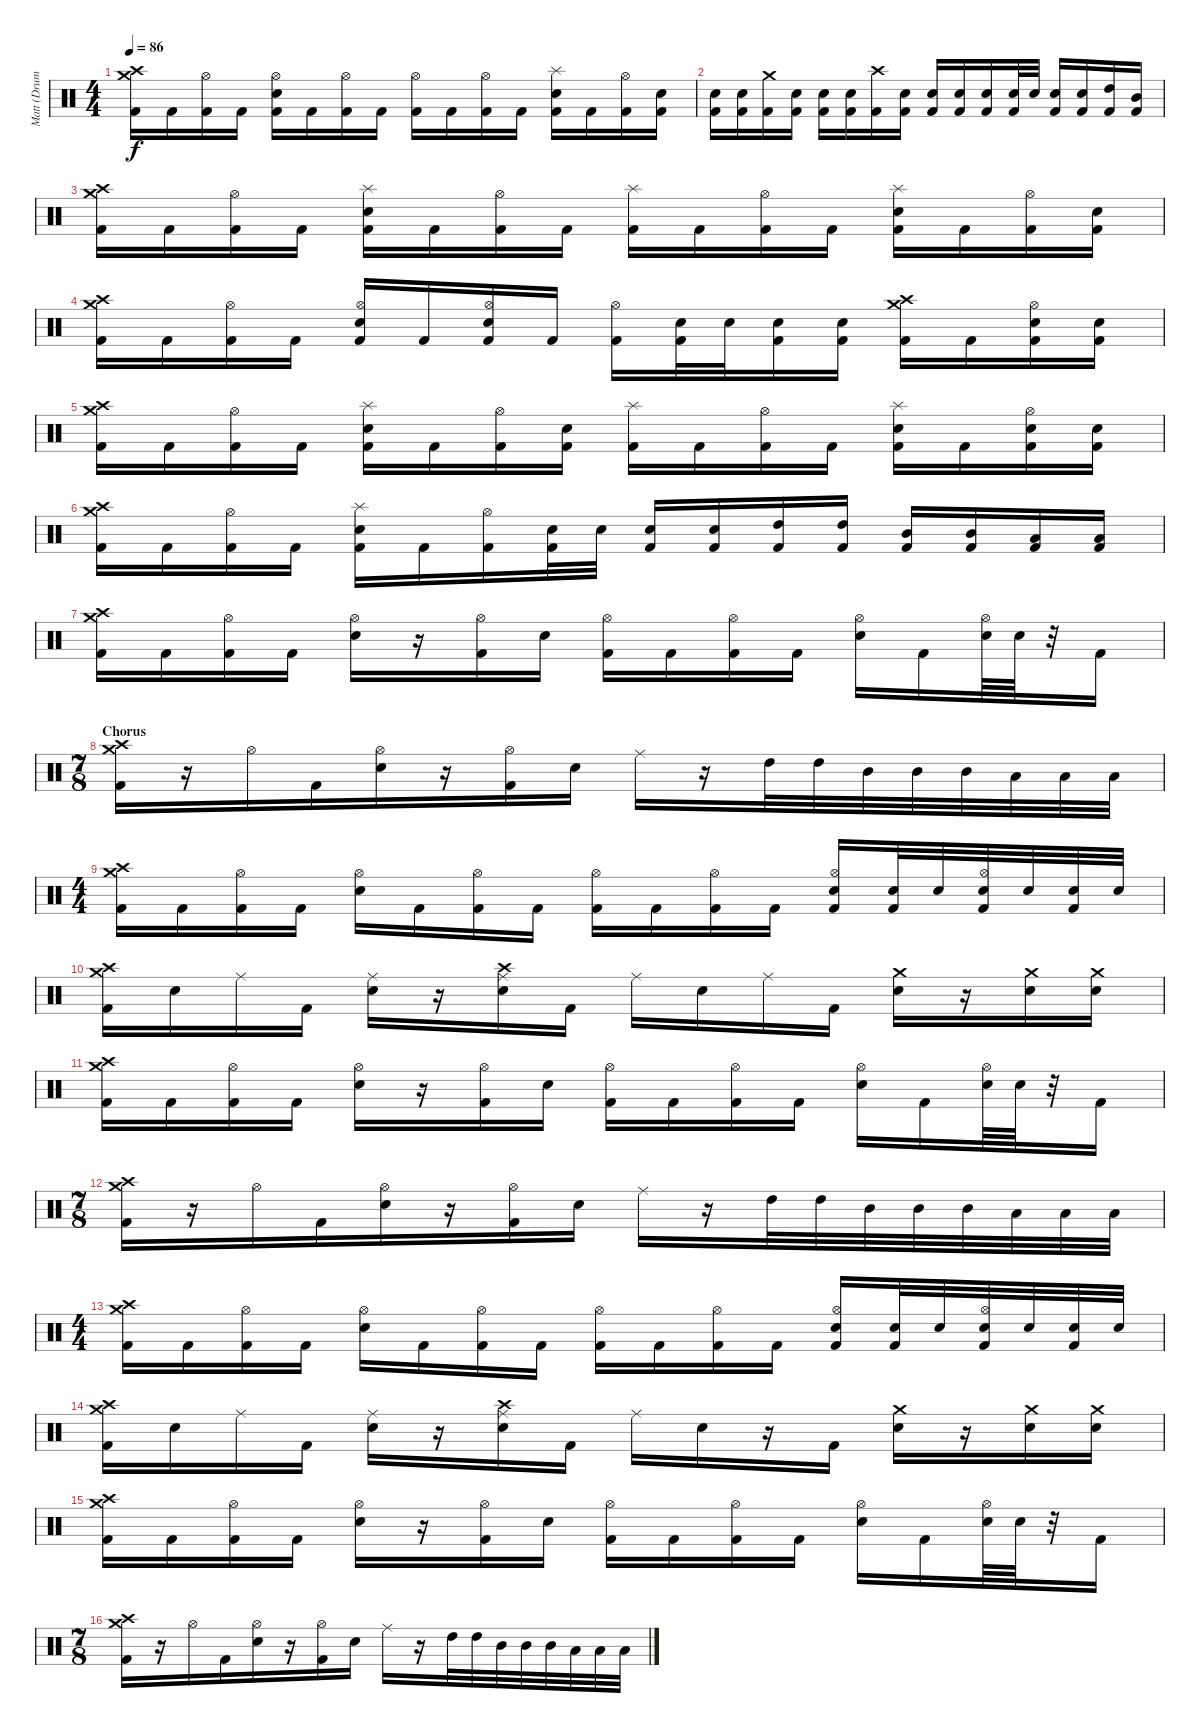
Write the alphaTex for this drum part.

\track ("Matt (Drums)" "Matt (Drum") {instrument percussion}
\staff {score}
\articulation defaults
\ts (4 4)
\tempo 86
\clef neutral
\ks c
("Crash medium (hit)" "Crash high (hit)" "Kick (hit) 2").16{dy f} "Kick (hit) 2".16 ("Hi-Hat (open)" "Kick (hit) 2").16 "Kick (hit) 2".16 ("Hi-Hat (open)" "Snare (hit) 2" "Kick (hit) 2").16 "Kick (hit) 2".16 ("Hi-Hat (open)" "Kick (hit) 2").16 "Kick (hit) 2".16 ("Hi-Hat (open)" "Kick (hit) 2").16 "Kick (hit) 2".16 ("Hi-Hat (open)" "Kick (hit) 2").16 "Kick (hit) 2".16 ("Splash (hit)" "Snare (hit) 2" "Kick (hit) 2").16 "Kick (hit) 2".16 ("Hi-Hat (open)" "Kick (hit) 2").16 ("Snare (hit) 2" "Kick (hit) 2").16 |
("Snare (hit) 2" "Kick (hit) 2").16 ("Snare (hit) 2" "Kick (hit) 2").16 ("Crash medium (hit)" "Kick (hit) 2").16 ("Snare (hit) 2" "Kick (hit) 2").16 ("Snare (hit) 2" "Kick (hit) 2").16 ("Snare (hit) 2" "Kick (hit) 2").16 ("Crash high (hit)" "Kick (hit) 2").16 ("Snare (hit) 2" "Kick (hit) 2").16 ("Snare (hit) 2" "Kick (hit) 2").16 ("Snare (hit) 2" "Kick (hit) 2").16 ("Snare (hit) 2" "Kick (hit) 2").16 ("Snare (hit) 2" "Kick (hit) 2").32 "Snare (hit) 2".32 ("Snare (hit) 2" "Kick (hit) 2").16 ("Snare (hit) 2" "Kick (hit) 2").16 ("High Tom (hit)" "Kick (hit) 2").16 ("Mid Tom (hit)" "Kick (hit) 2").16 |
("Crash medium (hit)" "Crash high (hit)" "Kick (hit) 2").16 "Kick (hit) 2".16 ("Hi-Hat (open)" "Kick (hit) 2").16 "Kick (hit) 2".16 ("Splash (hit)" "Snare (hit) 2" "Kick (hit) 2").16 "Kick (hit) 2".16 ("Hi-Hat (open)" "Kick (hit) 2").16 "Kick (hit) 2".16 ("Splash (hit)" "Kick (hit) 2").16 "Kick (hit) 2".16 ("Hi-Hat (open)" "Kick (hit) 2").16 "Kick (hit) 2".16 ("Splash (hit)" "Snare (hit) 2" "Kick (hit) 2").16 "Kick (hit) 2".16 ("Hi-Hat (open)" "Kick (hit) 2").16 ("Snare (hit) 2" "Kick (hit) 2").16 |
("Crash medium (hit)" "Crash high (hit)" "Kick (hit) 2").16 "Kick (hit) 2".16 ("Hi-Hat (open)" "Kick (hit) 2").16 "Kick (hit) 2".16 ("Hi-Hat (open)" "Snare (hit) 2" "Kick (hit) 2").16 "Kick (hit) 2".16 ("Hi-Hat (open)" "Snare (hit) 2" "Kick (hit) 2").16 "Kick (hit) 2".16 ("Hi-Hat (open)" "Kick (hit) 2").16 ("Snare (hit) 2" "Kick (hit) 2").32 "Snare (hit) 2".32 ("Snare (hit) 2" "Kick (hit) 2").16 ("Snare (hit) 2" "Kick (hit) 2").16 ("Crash medium (hit)" "Crash high (hit)" "Kick (hit) 2").16 "Kick (hit) 2".16 ("Hi-Hat (open)" "Snare (hit) 2" "Kick (hit) 2").16 ("Snare (hit) 2" "Kick (hit) 2").16 |
("Crash medium (hit)" "Crash high (hit)" "Kick (hit) 2").16 "Kick (hit) 2".16 ("Hi-Hat (open)" "Kick (hit) 2").16 "Kick (hit) 2".16 ("Splash (hit)" "Snare (hit) 2" "Kick (hit) 2").16 "Kick (hit) 2".16 ("Hi-Hat (open)" "Kick (hit) 2").16 ("Snare (hit) 2" "Kick (hit) 2").16 ("Splash (hit)" "Kick (hit) 2").16 "Kick (hit) 2".16 ("Hi-Hat (open)" "Kick (hit) 2").16 "Kick (hit) 2".16 ("Splash (hit)" "Snare (hit) 2" "Kick (hit) 2").16 "Kick (hit) 2".16 ("Hi-Hat (open)" "Snare (hit) 2" "Kick (hit) 2").16 ("Snare (hit) 2" "Kick (hit) 2").16 |
("Crash medium (hit)" "Crash high (hit)" "Kick (hit) 2").16 "Kick (hit) 2".16 ("Hi-Hat (open)" "Kick (hit) 2").16 "Kick (hit) 2".16 ("Splash (hit)" "Snare (hit) 2" "Kick (hit) 2").16 "Kick (hit) 2".16 ("Hi-Hat (open)" "Kick (hit) 2").16 ("Snare (hit) 2" "Kick (hit) 2").32 "Snare (hit) 2".32 ("Snare (hit) 2" "Kick (hit) 2").16 ("Snare (hit) 2" "Kick (hit) 2").16 ("High Tom (hit)" "Kick (hit) 2").16 ("High Tom (hit)" "Kick (hit) 2").16 ("Mid Tom (hit)" "Kick (hit) 2").16 ("Mid Tom (hit)" "Kick (hit) 2").16 ("Low Tom (hit)" "Kick (hit) 2").16 ("Low Tom (hit)" "Kick (hit) 2").16 |
("Crash medium (hit)" "Crash high (hit)" "Kick (hit) 2").16 "Kick (hit) 2".16 ("Hi-Hat (open)" "Kick (hit) 2").16 "Kick (hit) 2".16 ("Hi-Hat (open)" "Snare (hit) 2").16 r.16 ("Hi-Hat (open)" "Kick (hit) 2").16 "Snare (hit) 2".16 ("Hi-Hat (open)" "Kick (hit) 2").16 "Kick (hit) 2".16 ("Hi-Hat (open)" "Kick (hit) 2").16 "Kick (hit) 2".16 ("Hi-Hat (open)" "Snare (hit) 2").16 "Kick (hit) 2".16 ("Hi-Hat (open)" "Snare (hit) 2").64 "Snare (hit) 2".64 r.32 "Kick (hit) 2".16 |
\ts (7 8)
\section ("" "Chorus")
("Crash medium (hit)" "Crash high (hit)" "Kick (hit) 2").16 r.16 "Hi-Hat (open)".16 "Kick (hit) 2".16 ("Hi-Hat (open)" "Snare (hit) 2").16 r.16 ("Hi-Hat (open)" "Kick (hit) 2").16 "Snare (hit) 2".16 "Ride (middle)".16 r.16 "High Tom (hit)".32 "High Tom (hit)".32 "Mid Tom (hit)".32 "Mid Tom (hit)".32 "Mid Tom (hit)".32 "Low Tom (hit)".32 "Low Tom (hit)".32 "Low Tom (hit)".32 |
\ts (4 4)
("Crash medium (hit)" "Crash high (hit)" "Kick (hit) 2").16 "Kick (hit) 2".16 ("Hi-Hat (open)" "Kick (hit) 2").16 "Kick (hit) 2".16 ("Hi-Hat (open)" "Snare (hit) 2").16 "Kick (hit) 2".16 ("Hi-Hat (open)" "Kick (hit) 2").16 "Kick (hit) 2".16 ("Hi-Hat (open)" "Kick (hit) 2").16 "Kick (hit) 2".16 ("Hi-Hat (open)" "Kick (hit) 2").16 "Kick (hit) 2".16 ("Hi-Hat (open)" "Snare (hit) 2" "Kick (hit) 2").16 ("Snare (hit) 2" "Kick (hit) 2").32 "Snare (hit) 2".32 ("Hi-Hat (open)" "Snare (hit) 2" "Kick (hit) 2").32 "Snare (hit) 2".32 ("Snare (hit) 2" "Kick (hit) 2").32 "Snare (hit) 2".32 |
("Crash medium (hit)" "Crash high (hit)" "Kick (hit) 2").16 "Snare (hit) 2".16 "Ride (middle)".16 "Kick (hit) 2".16 ("Ride (middle)" "Snare (hit) 2").16 r.16 ("Crash high (hit)" "Ride (middle)" "Snare (hit) 2").16 "Kick (hit) 2".16 "Ride (middle)".16 "Snare (hit) 2".16 "Ride (middle)".16 "Kick (hit) 2".16 ("Crash medium (hit)" "Snare (hit) 2").16 r.16 ("Crash medium (hit)" "Snare (hit) 2").16 ("Crash medium (hit)" "Snare (hit) 2").16 |
("Crash medium (hit)" "Crash high (hit)" "Kick (hit) 2").16 "Kick (hit) 2".16 ("Hi-Hat (open)" "Kick (hit) 2").16 "Kick (hit) 2".16 ("Hi-Hat (open)" "Snare (hit) 2").16 r.16 ("Hi-Hat (open)" "Kick (hit) 2").16 "Snare (hit) 2".16 ("Hi-Hat (open)" "Kick (hit) 2").16 "Kick (hit) 2".16 ("Hi-Hat (open)" "Kick (hit) 2").16 "Kick (hit) 2".16 ("Hi-Hat (open)" "Snare (hit) 2").16 "Kick (hit) 2".16 ("Hi-Hat (open)" "Snare (hit) 2").64 "Snare (hit) 2".64 r.32 "Kick (hit) 2".16 |
\ts (7 8)
("Crash medium (hit)" "Crash high (hit)" "Kick (hit) 2").16 r.16 "Hi-Hat (open)".16 "Kick (hit) 2".16 ("Hi-Hat (open)" "Snare (hit) 2").16 r.16 ("Hi-Hat (open)" "Kick (hit) 2").16 "Snare (hit) 2".16 "Ride (middle)".16 r.16 "High Tom (hit)".32 "High Tom (hit)".32 "Mid Tom (hit)".32 "Mid Tom (hit)".32 "Mid Tom (hit)".32 "Low Tom (hit)".32 "Low Tom (hit)".32 "Low Tom (hit)".32 |
\ts (4 4)
("Crash medium (hit)" "Crash high (hit)" "Kick (hit) 2").16 "Kick (hit) 2".16 ("Hi-Hat (open)" "Kick (hit) 2").16 "Kick (hit) 2".16 ("Hi-Hat (open)" "Snare (hit) 2").16 "Kick (hit) 2".16 ("Hi-Hat (open)" "Kick (hit) 2").16 "Kick (hit) 2".16 ("Hi-Hat (open)" "Kick (hit) 2").16 "Kick (hit) 2".16 ("Hi-Hat (open)" "Kick (hit) 2").16 "Kick (hit) 2".16 ("Hi-Hat (open)" "Snare (hit) 2" "Kick (hit) 2").16 ("Snare (hit) 2" "Kick (hit) 2").32 "Snare (hit) 2".32 ("Hi-Hat (open)" "Snare (hit) 2" "Kick (hit) 2").32 "Snare (hit) 2".32 ("Snare (hit) 2" "Kick (hit) 2").32 "Snare (hit) 2".32 |
("Crash medium (hit)" "Crash high (hit)" "Kick (hit) 2").16 "Snare (hit) 2".16 "Ride (middle)".16 "Kick (hit) 2".16 ("Ride (middle)" "Snare (hit) 2").16 r.16 ("Crash high (hit)" "Ride (middle)" "Snare (hit) 2").16 "Kick (hit) 2".16 "Ride (middle)".16 "Snare (hit) 2".16 r.16 "Kick (hit) 2".16 ("Crash medium (hit)" "Snare (hit) 2").16 r.16 ("Crash medium (hit)" "Snare (hit) 2").16 ("Crash medium (hit)" "Snare (hit) 2").16 |
("Crash medium (hit)" "Crash high (hit)" "Kick (hit) 2").16 "Kick (hit) 2".16 ("Hi-Hat (open)" "Kick (hit) 2").16 "Kick (hit) 2".16 ("Hi-Hat (open)" "Snare (hit) 2").16 r.16 ("Hi-Hat (open)" "Kick (hit) 2").16 "Snare (hit) 2".16 ("Hi-Hat (open)" "Kick (hit) 2").16 "Kick (hit) 2".16 ("Hi-Hat (open)" "Kick (hit) 2").16 "Kick (hit) 2".16 ("Hi-Hat (open)" "Snare (hit) 2").16 "Kick (hit) 2".16 ("Hi-Hat (open)" "Snare (hit) 2").64 "Snare (hit) 2".64 r.32 "Kick (hit) 2".16 |
\ts (7 8)
("Crash medium (hit)" "Crash high (hit)" "Kick (hit) 2").16 r.16 "Hi-Hat (open)".16 "Kick (hit) 2".16 ("Hi-Hat (open)" "Snare (hit) 2").16 r.16 ("Hi-Hat (open)" "Kick (hit) 2").16 "Snare (hit) 2".16 "Ride (middle)".16 r.16 "High Tom (hit)".32 "High Tom (hit)".32 "Mid Tom (hit)".32 "Mid Tom (hit)".32 "Mid Tom (hit)".32 "Low Tom (hit)".32 "Low Tom (hit)".32 "Low Tom (hit)".32
